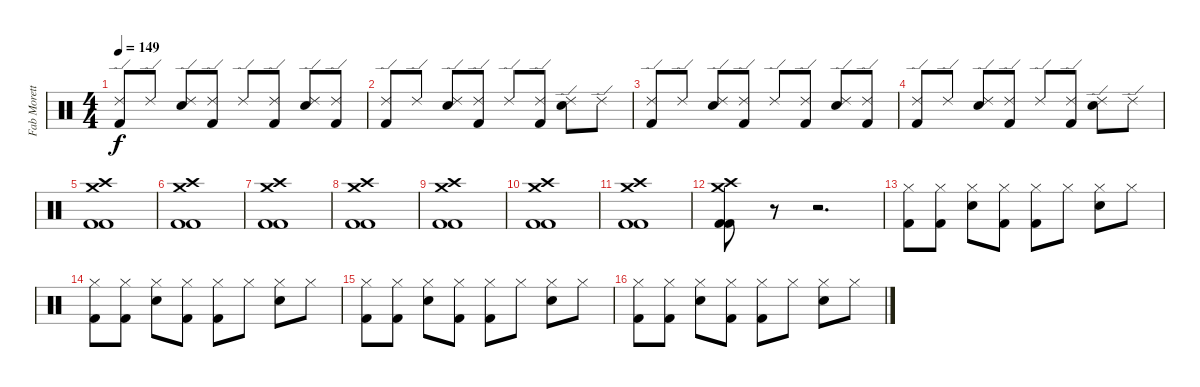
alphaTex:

\track ("Fab Moretti" "Fab Morett") {instrument percussion}
\staff {score}
\articulation defaults
\ts (4 4)
\tempo 149
\clef neutral
\ks c
("Ride (edge) 2" "Kick (hit) 2").8{dy f} "Ride (edge) 2".8 ("Ride (edge) 2" "Electric Snare (hit)").8 ("Ride (edge) 2" "Kick (hit) 2").8 "Ride (edge) 2".8 ("Ride (edge) 2" "Kick (hit) 2").8 ("Ride (edge) 2" "Electric Snare (hit)").8 ("Ride (edge) 2" "Kick (hit) 2").8 |
("Ride (edge) 2" "Kick (hit) 2").8 "Ride (edge) 2".8 ("Ride (edge) 2" "Electric Snare (hit)").8 ("Ride (edge) 2" "Kick (hit) 2").8 "Ride (edge) 2".8 ("Ride (edge) 2" "Kick (hit) 2").8 ("Ride (edge) 2" "Electric Snare (hit)").8 "Ride (edge) 2".8 |
("Ride (edge) 2" "Kick (hit) 2").8 "Ride (edge) 2".8 ("Ride (edge) 2" "Electric Snare (hit)").8 ("Ride (edge) 2" "Kick (hit) 2").8 "Ride (edge) 2".8 ("Ride (edge) 2" "Kick (hit) 2").8 ("Ride (edge) 2" "Electric Snare (hit)").8 ("Ride (edge) 2" "Kick (hit) 2").8 |
("Ride (edge) 2" "Kick (hit) 2").8 "Ride (edge) 2".8 ("Ride (edge) 2" "Electric Snare (hit)").8 ("Ride (edge) 2" "Kick (hit) 2").8 "Ride (edge) 2".8 ("Ride (edge) 2" "Kick (hit) 2").8 ("Ride (edge) 2" "Electric Snare (hit)").8 "Ride (edge) 2".8 |
("Crash high (hit)" "Crash medium (hit)" "Kick (hit) 2" "Kick (hit) 2").1 |
("Crash high (hit)" "Crash medium (hit)" "Kick (hit) 2" "Kick (hit) 2").1 |
("Crash high (hit)" "Crash medium (hit)" "Kick (hit) 2" "Kick (hit) 2").1 |
("Crash high (hit)" "Crash medium (hit)" "Kick (hit) 2" "Kick (hit) 2").1 |
("Crash high (hit)" "Crash medium (hit)" "Kick (hit) 2" "Kick (hit) 2").1 |
("Crash high (hit)" "Crash medium (hit)" "Kick (hit) 2" "Kick (hit) 2").1 |
("Crash high (hit)" "Crash medium (hit)" "Kick (hit) 2" "Kick (hit) 2").1 |
("Crash high (hit)" "Crash medium (hit)" "Kick (hit) 2" "Kick (hit) 2").8 r.8 r.2{d} |
("Hi-Hat (closed)" "Kick (hit) 2").8 ("Hi-Hat (closed)" "Kick (hit) 2").8 ("Hi-Hat (closed)" "Electric Snare (hit)").8 ("Hi-Hat (closed)" "Kick (hit) 2").8 ("Hi-Hat (closed)" "Kick (hit) 2").8 "Hi-Hat (closed)".8 ("Hi-Hat (closed)" "Electric Snare (hit)").8 "Hi-Hat (closed)".8 |
("Hi-Hat (closed)" "Kick (hit) 2").8 ("Hi-Hat (closed)" "Kick (hit) 2").8 ("Hi-Hat (closed)" "Electric Snare (hit)").8 ("Hi-Hat (closed)" "Kick (hit) 2").8 ("Hi-Hat (closed)" "Kick (hit) 2").8 "Hi-Hat (closed)".8 ("Hi-Hat (closed)" "Electric Snare (hit)").8 "Hi-Hat (closed)".8 |
("Hi-Hat (closed)" "Kick (hit) 2").8 ("Hi-Hat (closed)" "Kick (hit) 2").8 ("Hi-Hat (closed)" "Electric Snare (hit)").8 ("Hi-Hat (closed)" "Kick (hit) 2").8 ("Hi-Hat (closed)" "Kick (hit) 2").8 "Hi-Hat (closed)".8 ("Hi-Hat (closed)" "Electric Snare (hit)").8 "Hi-Hat (closed)".8 |
("Hi-Hat (closed)" "Kick (hit) 2").8 ("Hi-Hat (closed)" "Kick (hit) 2").8 ("Hi-Hat (closed)" "Electric Snare (hit)").8 ("Hi-Hat (closed)" "Kick (hit) 2").8 ("Hi-Hat (closed)" "Kick (hit) 2").8 "Hi-Hat (closed)".8 ("Hi-Hat (closed)" "Electric Snare (hit)").8 "Hi-Hat (closed)".8
